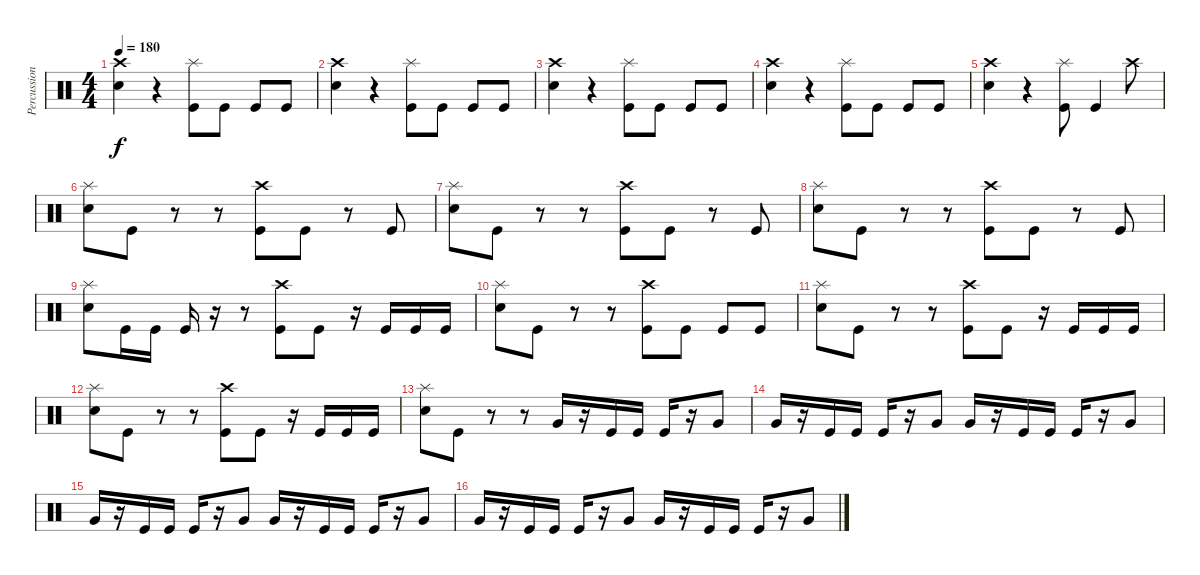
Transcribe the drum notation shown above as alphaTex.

\track ("Percussion" "Percussion") {instrument percussion}
\staff {score}
\articulation defaults
\ts (4 4)
\tempo 180
\clef neutral
\ks c
("Crash high (hit)" "Snare (hit) 2").4{dy f} r.4 ("Splash (hit)" "Kick (hit)").8 "Kick (hit)".8 "Kick (hit)".8 "Kick (hit)".8 |
("Crash high (hit)" "Snare (hit) 2").4 r.4 ("Splash (hit)" "Kick (hit)").8 "Kick (hit)".8 "Kick (hit)".8 "Kick (hit)".8 |
("Crash high (hit)" "Snare (hit) 2").4 r.4 ("Splash (hit)" "Kick (hit)").8 "Kick (hit)".8 "Kick (hit)".8 "Kick (hit)".8 |
("Crash high (hit)" "Snare (hit) 2").4 r.4 ("Splash (hit)" "Kick (hit)").8 "Kick (hit)".8 "Kick (hit)".8 "Kick (hit)".8 |
("Crash high (hit)" "Snare (hit) 2").4 r.4 ("Splash (hit)" "Kick (hit)").8 "Kick (hit)".4 "Crash high (hit)".8 |
("Splash (hit)" "Snare (hit) 2").8 "Kick (hit)".8 r.8 r.8 ("Crash high (hit)" "Kick (hit)").8 "Kick (hit)".8 r.8 "Kick (hit)".8 |
("Splash (hit)" "Snare (hit) 2").8 "Kick (hit)".8 r.8 r.8 ("Crash high (hit)" "Kick (hit)").8 "Kick (hit)".8 r.8 "Kick (hit)".8 |
("Splash (hit)" "Snare (hit) 2").8 "Kick (hit)".8 r.8 r.8 ("Crash high (hit)" "Kick (hit)").8 "Kick (hit)".8 r.8 "Kick (hit)".8 |
("Splash (hit)" "Snare (hit) 2").8 "Kick (hit)".16 "Kick (hit)".16 "Kick (hit)".16 r.16 r.8 ("Crash high (hit)" "Kick (hit)").8 "Kick (hit)".8 r.16 "Kick (hit)".16 "Kick (hit)".16 "Kick (hit)".16 |
("Splash (hit)" "Snare (hit) 2").8 "Kick (hit)".8 r.8 r.8 ("Crash high (hit)" "Kick (hit)").8 "Kick (hit)".8 "Kick (hit)".8 "Kick (hit)".8 |
("Splash (hit)" "Snare (hit) 2").8 "Kick (hit)".8 r.8 r.8 ("Crash high (hit)" "Kick (hit)").8 "Kick (hit)".8 r.16 "Kick (hit)".16 "Kick (hit)".16 "Kick (hit)".16 |
("Splash (hit)" "Snare (hit) 2").8 "Kick (hit)".8 r.8 r.8 ("Crash high (hit)" "Kick (hit)").8 "Kick (hit)".8 r.16 "Kick (hit)".16 "Kick (hit)".16 "Kick (hit)".16 |
("Splash (hit)" "Snare (hit) 2").8 "Kick (hit)".8 r.8 r.8 "Very Low Tom (hit)".16 r.16 "Kick (hit)".16 "Kick (hit)".16 "Kick (hit)".16 r.16 "Very Low Tom (hit)".8 |
"Very Low Tom (hit)".16 r.16 "Kick (hit)".16 "Kick (hit)".16 "Kick (hit)".16 r.16 "Very Low Tom (hit)".8 "Very Low Tom (hit)".16 r.16 "Kick (hit)".16 "Kick (hit)".16 "Kick (hit)".16 r.16 "Very Low Tom (hit)".8 |
"Very Low Tom (hit)".16 r.16 "Kick (hit)".16 "Kick (hit)".16 "Kick (hit)".16 r.16 "Very Low Tom (hit)".8 "Very Low Tom (hit)".16 r.16 "Kick (hit)".16 "Kick (hit)".16 "Kick (hit)".16 r.16 "Very Low Tom (hit)".8 |
"Very Low Tom (hit)".16 r.16 "Kick (hit)".16 "Kick (hit)".16 "Kick (hit)".16 r.16 "Very Low Tom (hit)".8 "Very Low Tom (hit)".16 r.16 "Kick (hit)".16 "Kick (hit)".16 "Kick (hit)".16 r.16 "Very Low Tom (hit)".8
